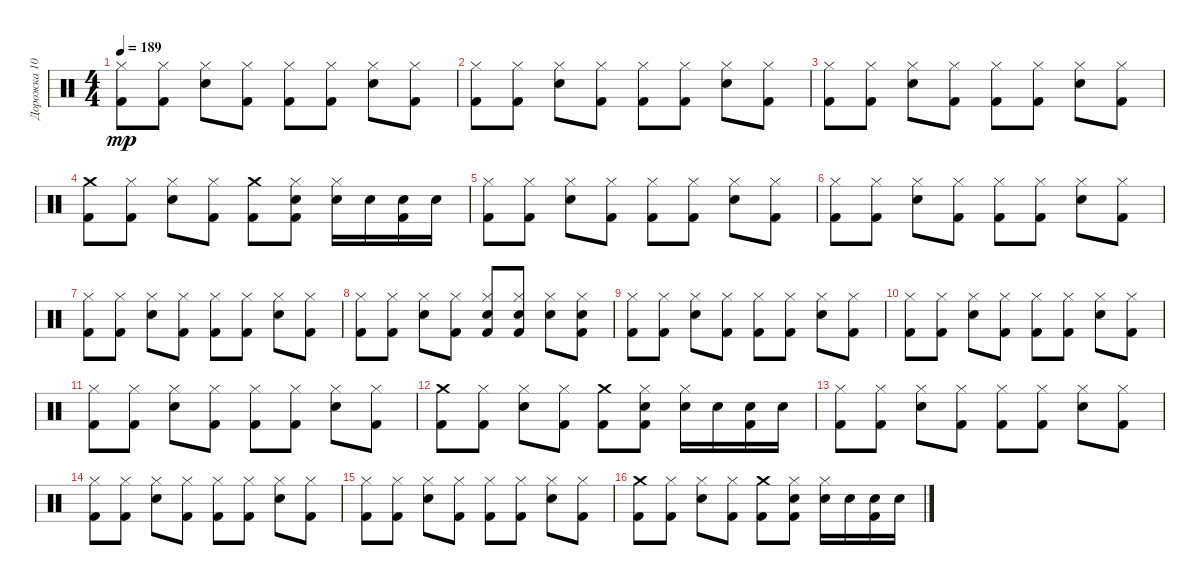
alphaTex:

\track ("Дорожка 10" "Дорожка 10") {instrument percussion}
\staff {score}
\articulation defaults
\ts (4 4)
\tempo 189
\clef neutral
\ks c
("Kick (hit) 2" "Hi-Hat (closed)").8{dy mp} ("Kick (hit) 2" "Hi-Hat (closed)").8 ("Snare (hit) 2" "Hi-Hat (closed)").8 ("Kick (hit) 2" "Hi-Hat (closed)").8 ("Kick (hit) 2" "Hi-Hat (closed)").8 ("Kick (hit) 2" "Hi-Hat (closed)").8 ("Snare (hit) 2" "Hi-Hat (closed)").8 ("Kick (hit) 2" "Hi-Hat (closed)").8 |
("Kick (hit) 2" "Hi-Hat (closed)").8 ("Kick (hit) 2" "Hi-Hat (closed)").8 ("Snare (hit) 2" "Hi-Hat (closed)").8 ("Kick (hit) 2" "Hi-Hat (closed)").8 ("Kick (hit) 2" "Hi-Hat (closed)").8 ("Kick (hit) 2" "Hi-Hat (closed)").8 ("Snare (hit) 2" "Hi-Hat (closed)").8 ("Kick (hit) 2" "Hi-Hat (closed)").8 |
("Kick (hit) 2" "Hi-Hat (closed)").8 ("Kick (hit) 2" "Hi-Hat (closed)").8 ("Snare (hit) 2" "Hi-Hat (closed)").8 ("Kick (hit) 2" "Hi-Hat (closed)").8 ("Kick (hit) 2" "Hi-Hat (closed)").8 ("Kick (hit) 2" "Hi-Hat (closed)").8 ("Snare (hit) 2" "Hi-Hat (closed)").8 ("Kick (hit) 2" "Hi-Hat (closed)").8 |
("Kick (hit) 2" "Crash medium (hit)").8 ("Kick (hit) 2" "Hi-Hat (closed)").8 ("Snare (hit) 2" "Hi-Hat (closed)").8 ("Kick (hit) 2" "Hi-Hat (closed)").8 ("Kick (hit) 2" "Crash medium (hit)").8 ("Kick (hit) 2" "Snare (hit) 2" "Hi-Hat (closed)").8 ("Snare (hit) 2" "Hi-Hat (closed)").16 "Snare (hit) 2".16 ("Kick (hit) 2" "Snare (hit) 2").16 "Snare (hit) 2".16 |
("Kick (hit) 2" "Hi-Hat (closed)").8 ("Kick (hit) 2" "Hi-Hat (closed)").8 ("Snare (hit) 2" "Hi-Hat (closed)").8 ("Kick (hit) 2" "Hi-Hat (closed)").8 ("Kick (hit) 2" "Hi-Hat (closed)").8 ("Kick (hit) 2" "Hi-Hat (closed)").8 ("Snare (hit) 2" "Hi-Hat (closed)").8 ("Kick (hit) 2" "Hi-Hat (closed)").8 |
("Kick (hit) 2" "Hi-Hat (closed)").8 ("Kick (hit) 2" "Hi-Hat (closed)").8 ("Snare (hit) 2" "Hi-Hat (closed)").8 ("Kick (hit) 2" "Hi-Hat (closed)").8 ("Kick (hit) 2" "Hi-Hat (closed)").8 ("Kick (hit) 2" "Hi-Hat (closed)").8 ("Snare (hit) 2" "Hi-Hat (closed)").8 ("Kick (hit) 2" "Hi-Hat (closed)").8 |
("Kick (hit) 2" "Hi-Hat (closed)").8 ("Kick (hit) 2" "Hi-Hat (closed)").8 ("Snare (hit) 2" "Hi-Hat (closed)").8 ("Kick (hit) 2" "Hi-Hat (closed)").8 ("Kick (hit) 2" "Hi-Hat (closed)").8 ("Kick (hit) 2" "Hi-Hat (closed)").8 ("Snare (hit) 2" "Hi-Hat (closed)").8 ("Kick (hit) 2" "Hi-Hat (closed)").8 |
("Kick (hit) 2" "Hi-Hat (closed)").8 ("Kick (hit) 2" "Hi-Hat (closed)").8 ("Snare (hit) 2" "Hi-Hat (closed)").8 ("Kick (hit) 2" "Hi-Hat (closed)").8 ("Kick (hit) 2" "Snare (hit) 2" "Hi-Hat (closed)").8 ("Kick (hit) 2" "Snare (hit) 2" "Hi-Hat (closed)").8 ("Snare (hit) 2" "Hi-Hat (closed)").8 ("Kick (hit) 2" "Snare (hit) 2" "Hi-Hat (closed)").8 |
("Kick (hit) 2" "Hi-Hat (closed)").8 ("Kick (hit) 2" "Hi-Hat (closed)").8 ("Snare (hit) 2" "Hi-Hat (closed)").8 ("Kick (hit) 2" "Hi-Hat (closed)").8 ("Kick (hit) 2" "Hi-Hat (closed)").8 ("Kick (hit) 2" "Hi-Hat (closed)").8 ("Snare (hit) 2" "Hi-Hat (closed)").8 ("Kick (hit) 2" "Hi-Hat (closed)").8 |
("Kick (hit) 2" "Hi-Hat (closed)").8 ("Kick (hit) 2" "Hi-Hat (closed)").8 ("Snare (hit) 2" "Hi-Hat (closed)").8 ("Kick (hit) 2" "Hi-Hat (closed)").8 ("Kick (hit) 2" "Hi-Hat (closed)").8 ("Kick (hit) 2" "Hi-Hat (closed)").8 ("Snare (hit) 2" "Hi-Hat (closed)").8 ("Kick (hit) 2" "Hi-Hat (closed)").8 |
("Kick (hit) 2" "Hi-Hat (closed)").8 ("Kick (hit) 2" "Hi-Hat (closed)").8 ("Snare (hit) 2" "Hi-Hat (closed)").8 ("Kick (hit) 2" "Hi-Hat (closed)").8 ("Kick (hit) 2" "Hi-Hat (closed)").8 ("Kick (hit) 2" "Hi-Hat (closed)").8 ("Snare (hit) 2" "Hi-Hat (closed)").8 ("Kick (hit) 2" "Hi-Hat (closed)").8 |
("Kick (hit) 2" "Crash medium (hit)").8 ("Kick (hit) 2" "Hi-Hat (closed)").8 ("Snare (hit) 2" "Hi-Hat (closed)").8 ("Kick (hit) 2" "Hi-Hat (closed)").8 ("Kick (hit) 2" "Crash medium (hit)").8 ("Kick (hit) 2" "Snare (hit) 2" "Hi-Hat (closed)").8 ("Snare (hit) 2" "Hi-Hat (closed)").16 "Snare (hit) 2".16 ("Kick (hit) 2" "Snare (hit) 2").16 "Snare (hit) 2".16 |
("Kick (hit) 2" "Hi-Hat (closed)").8 ("Kick (hit) 2" "Hi-Hat (closed)").8 ("Snare (hit) 2" "Hi-Hat (closed)").8 ("Kick (hit) 2" "Hi-Hat (closed)").8 ("Kick (hit) 2" "Hi-Hat (closed)").8 ("Kick (hit) 2" "Hi-Hat (closed)").8 ("Snare (hit) 2" "Hi-Hat (closed)").8 ("Kick (hit) 2" "Hi-Hat (closed)").8 |
("Kick (hit) 2" "Hi-Hat (closed)").8 ("Kick (hit) 2" "Hi-Hat (closed)").8 ("Snare (hit) 2" "Hi-Hat (closed)").8 ("Kick (hit) 2" "Hi-Hat (closed)").8 ("Kick (hit) 2" "Hi-Hat (closed)").8 ("Kick (hit) 2" "Hi-Hat (closed)").8 ("Snare (hit) 2" "Hi-Hat (closed)").8 ("Kick (hit) 2" "Hi-Hat (closed)").8 |
("Kick (hit) 2" "Hi-Hat (closed)").8 ("Kick (hit) 2" "Hi-Hat (closed)").8 ("Snare (hit) 2" "Hi-Hat (closed)").8 ("Kick (hit) 2" "Hi-Hat (closed)").8 ("Kick (hit) 2" "Hi-Hat (closed)").8 ("Kick (hit) 2" "Hi-Hat (closed)").8 ("Snare (hit) 2" "Hi-Hat (closed)").8 ("Kick (hit) 2" "Hi-Hat (closed)").8 |
("Kick (hit) 2" "Crash medium (hit)").8 ("Kick (hit) 2" "Hi-Hat (closed)").8 ("Snare (hit) 2" "Hi-Hat (closed)").8 ("Kick (hit) 2" "Hi-Hat (closed)").8 ("Kick (hit) 2" "Crash medium (hit)").8 ("Kick (hit) 2" "Snare (hit) 2" "Hi-Hat (closed)").8 ("Snare (hit) 2" "Hi-Hat (closed)").16 "Snare (hit) 2".16 ("Kick (hit) 2" "Snare (hit) 2").16 "Snare (hit) 2".16
